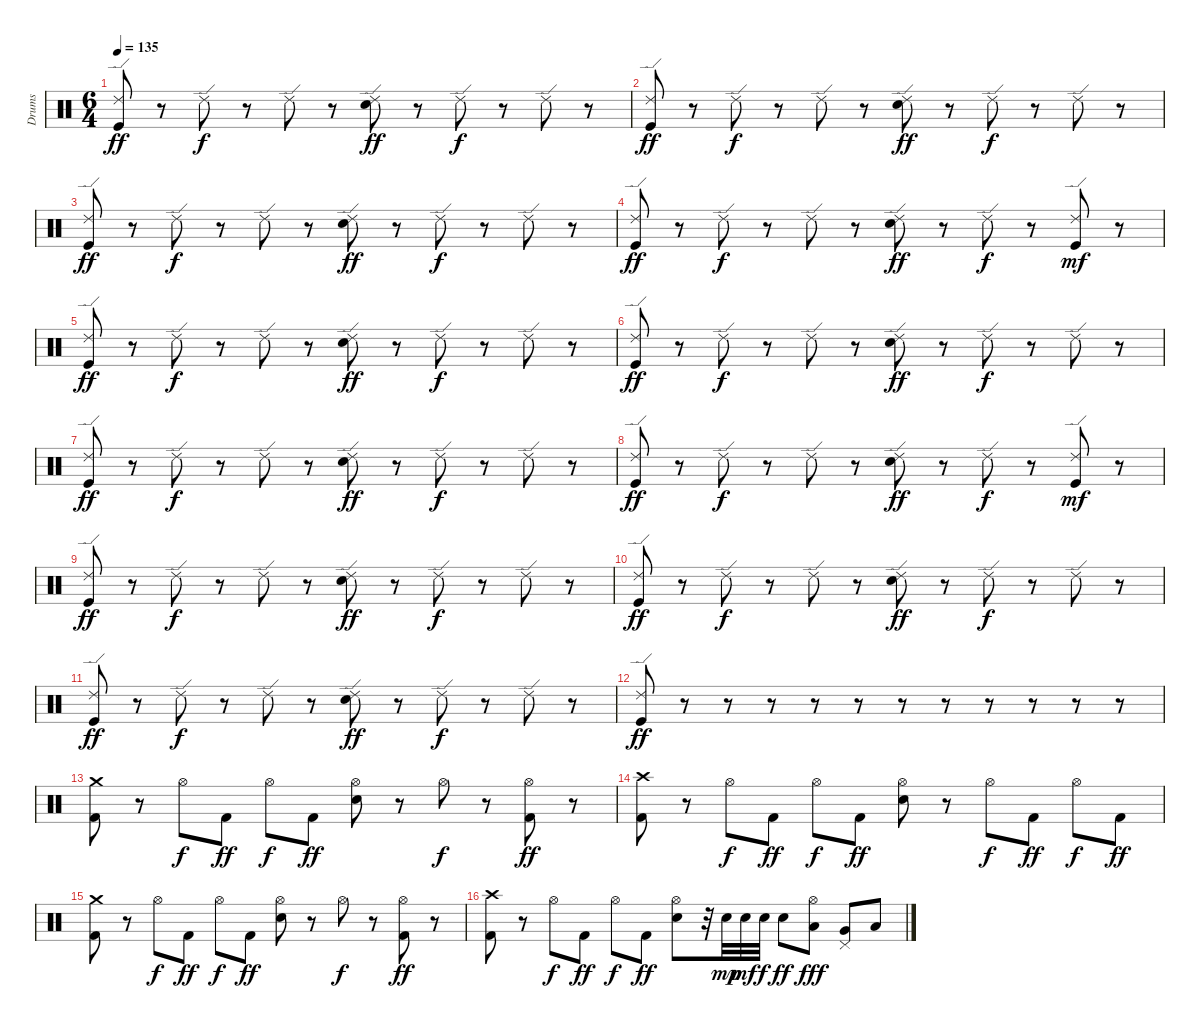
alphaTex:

\track ("Drums" "Drums") {instrument percussion}
\staff {score}
\articulation defaults
\ts (6 4)
\tempo 135
\clef neutral
\ks c
("Ride (edge) 2" "Kick (hit)").8{dy ff volume 13} r.8 "Ride (edge) 2".8{dy f} r.8 "Ride (edge) 2".8 r.8 ("Ride (edge) 2" "Electric Snare (hit)").8{dy ff} r.8 "Ride (edge) 2".8{dy f} r.8 "Ride (edge) 2".8 r.8 |
("Ride (edge) 2" "Kick (hit)").8{dy ff} r.8 "Ride (edge) 2".8{dy f} r.8 "Ride (edge) 2".8 r.8 ("Ride (edge) 2" "Electric Snare (hit)").8{dy ff} r.8 "Ride (edge) 2".8{dy f} r.8 "Ride (edge) 2".8 r.8 |
("Ride (edge) 2" "Kick (hit)").8{dy ff} r.8 "Ride (edge) 2".8{dy f} r.8 "Ride (edge) 2".8 r.8 ("Ride (edge) 2" "Electric Snare (hit)").8{dy ff} r.8 "Ride (edge) 2".8{dy f} r.8 "Ride (edge) 2".8 r.8 |
("Ride (edge) 2" "Kick (hit)").8{dy ff} r.8 "Ride (edge) 2".8{dy f} r.8 "Ride (edge) 2".8 r.8 ("Ride (edge) 2" "Electric Snare (hit)").8{dy ff} r.8 "Ride (edge) 2".8{dy f} r.8 ("Ride (edge) 2" "Kick (hit)").8{dy mf} r.8 |
("Ride (edge) 2" "Kick (hit)").8{dy ff} r.8 "Ride (edge) 2".8{dy f} r.8 "Ride (edge) 2".8 r.8 ("Ride (edge) 2" "Electric Snare (hit)").8{dy ff} r.8 "Ride (edge) 2".8{dy f} r.8 "Ride (edge) 2".8 r.8 |
("Ride (edge) 2" "Kick (hit)").8{dy ff} r.8 "Ride (edge) 2".8{dy f} r.8 "Ride (edge) 2".8 r.8 ("Ride (edge) 2" "Electric Snare (hit)").8{dy ff} r.8 "Ride (edge) 2".8{dy f} r.8 "Ride (edge) 2".8 r.8 |
("Ride (edge) 2" "Kick (hit)").8{dy ff} r.8 "Ride (edge) 2".8{dy f} r.8 "Ride (edge) 2".8 r.8 ("Ride (edge) 2" "Electric Snare (hit)").8{dy ff} r.8 "Ride (edge) 2".8{dy f} r.8 "Ride (edge) 2".8 r.8 |
("Ride (edge) 2" "Kick (hit)").8{dy ff} r.8 "Ride (edge) 2".8{dy f} r.8 "Ride (edge) 2".8 r.8 ("Ride (edge) 2" "Electric Snare (hit)").8{dy ff} r.8 "Ride (edge) 2".8{dy f} r.8 ("Ride (edge) 2" "Kick (hit)").8{dy mf} r.8 |
("Ride (edge) 2" "Kick (hit)").8{dy ff} r.8 "Ride (edge) 2".8{dy f} r.8 "Ride (edge) 2".8 r.8 ("Ride (edge) 2" "Electric Snare (hit)").8{dy ff} r.8 "Ride (edge) 2".8{dy f} r.8 "Ride (edge) 2".8 r.8 |
("Ride (edge) 2" "Kick (hit)").8{dy ff} r.8 "Ride (edge) 2".8{dy f} r.8 "Ride (edge) 2".8 r.8 ("Ride (edge) 2" "Electric Snare (hit)").8{dy ff} r.8 "Ride (edge) 2".8{dy f} r.8 "Ride (edge) 2".8 r.8 |
("Ride (edge) 2" "Kick (hit)").8{dy ff} r.8 "Ride (edge) 2".8{dy f} r.8 "Ride (edge) 2".8 r.8 ("Ride (edge) 2" "Electric Snare (hit)").8{dy ff} r.8 "Ride (edge) 2".8{dy f} r.8 "Ride (edge) 2".8 r.8 |
("Ride (edge) 2" "Kick (hit)").8{dy ff} r.8 r.8 r.8 r.8 r.8 r.8 r.8 r.8 r.8 r.8 r.8 |
("Crash medium (hit)" "Kick (hit) 2").8{volume 16} r.8 "Hi-Hat (open)".8{dy f} "Kick (hit) 2".8{dy ff} "Hi-Hat (open)".8{dy f} "Kick (hit) 2".8{dy ff} ("Hi-Hat (open)" "Electric Snare (hit)").8 r.8 "Hi-Hat (open)".8{dy f} r.8 ("Hi-Hat (open)" "Kick (hit) 2").8{dy ff} r.8 |
("Crash high (hit)" "Kick (hit) 2").8 r.8 "Hi-Hat (open)".8{dy f} "Kick (hit) 2".8{dy ff} "Hi-Hat (open)".8{dy f} "Kick (hit) 2".8{dy ff} ("Hi-Hat (open)" "Electric Snare (hit)").8 r.8 "Hi-Hat (open)".8{dy f} "Kick (hit) 2".8{dy ff} "Hi-Hat (open)".8{dy f} "Kick (hit) 2".8{dy ff} |
("Crash medium (hit)" "Kick (hit) 2").8 r.8 "Hi-Hat (open)".8{dy f} "Kick (hit) 2".8{dy ff} "Hi-Hat (open)".8{dy f} "Kick (hit) 2".8{dy ff} ("Hi-Hat (open)" "Electric Snare (hit)").8 r.8 "Hi-Hat (open)".8{dy f} r.8 ("Hi-Hat (open)" "Kick (hit) 2").8{dy ff} r.8 |
("Crash high (hit)" "Kick (hit) 2").8 r.8 "Hi-Hat (open)".8{dy f} "Kick (hit) 2".8{dy ff} "Hi-Hat (open)".8{dy f} "Kick (hit) 2".8{dy ff} ("Hi-Hat (open)" "Electric Snare (hit)").8 r.32 "Electric Snare (hit)".32{dy mp} "Electric Snare (hit)".32{dy mf} "Electric Snare (hit)".32{dy f} "Electric Snare (hit)".8{dy ff} ("Hi-Hat (open)" "Low Tom (hit)").8{dy fff} ("Pedal Hi-Hat (hit)" "Very Low Tom (hit)").8 "Low Floor Tom (hit)".8
